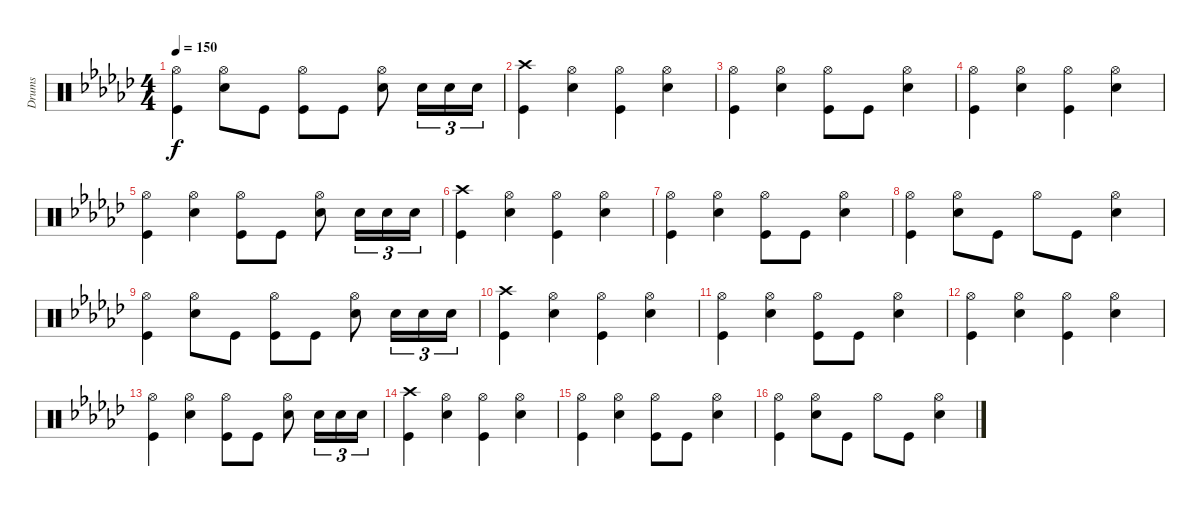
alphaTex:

\track ("Drums" "Drums") {instrument percussion}
\staff {score}
\articulation defaults
\ts (4 4)
\tempo 150
\clef neutral
\ks ebminor
("Hi-Hat (open)" "Kick (hit)").4{dy f} ("Hi-Hat (open)" "Snare (hit) 2").8 "Kick (hit)".8 ("Hi-Hat (open)" "Kick (hit)").8 "Kick (hit)".8 ("Hi-Hat (open)" "Snare (hit) 2").8 "Snare (hit) 2".16{tu (3 2)} "Snare (hit) 2".16{tu (3 2)} "Snare (hit) 2".16{tu (3 2)} |
("Crash high (hit)" "Kick (hit)").4 ("Hi-Hat (open)" "Snare (hit) 2").4 ("Hi-Hat (open)" "Kick (hit)").4 ("Hi-Hat (open)" "Snare (hit) 2").4 |
("Hi-Hat (open)" "Kick (hit)").4 ("Hi-Hat (open)" "Snare (hit) 2").4 ("Hi-Hat (open)" "Kick (hit)").8 "Kick (hit)".8 ("Hi-Hat (open)" "Snare (hit) 2").4 |
("Hi-Hat (open)" "Kick (hit)").4 ("Hi-Hat (open)" "Snare (hit) 2").4 ("Hi-Hat (open)" "Kick (hit)").4 ("Hi-Hat (open)" "Snare (hit) 2").4 |
("Hi-Hat (open)" "Kick (hit)").4 ("Hi-Hat (open)" "Snare (hit) 2").4 ("Hi-Hat (open)" "Kick (hit)").8 "Kick (hit)".8 ("Hi-Hat (open)" "Snare (hit) 2").8 "Snare (hit) 2".16{tu (3 2)} "Snare (hit) 2".16{tu (3 2)} "Snare (hit) 2".16{tu (3 2)} |
("Crash high (hit)" "Kick (hit)").4 ("Hi-Hat (open)" "Snare (hit) 2").4 ("Hi-Hat (open)" "Kick (hit)").4 ("Hi-Hat (open)" "Snare (hit) 2").4 |
("Hi-Hat (open)" "Kick (hit)").4 ("Hi-Hat (open)" "Snare (hit) 2").4 ("Hi-Hat (open)" "Kick (hit)").8 "Kick (hit)".8 ("Hi-Hat (open)" "Snare (hit) 2").4 |
("Hi-Hat (open)" "Kick (hit)").4 ("Hi-Hat (open)" "Snare (hit) 2").8 "Kick (hit)".8 "Hi-Hat (open)".8 "Kick (hit)".8 ("Hi-Hat (open)" "Snare (hit) 2").4 |
("Hi-Hat (open)" "Kick (hit)").4 ("Hi-Hat (open)" "Snare (hit) 2").8 "Kick (hit)".8 ("Hi-Hat (open)" "Kick (hit)").8 "Kick (hit)".8 ("Hi-Hat (open)" "Snare (hit) 2").8 "Snare (hit) 2".16{tu (3 2)} "Snare (hit) 2".16{tu (3 2)} "Snare (hit) 2".16{tu (3 2)} |
("Crash high (hit)" "Kick (hit)").4 ("Hi-Hat (open)" "Snare (hit) 2").4 ("Hi-Hat (open)" "Kick (hit)").4 ("Hi-Hat (open)" "Snare (hit) 2").4 |
("Hi-Hat (open)" "Kick (hit)").4 ("Hi-Hat (open)" "Snare (hit) 2").4 ("Hi-Hat (open)" "Kick (hit)").8 "Kick (hit)".8 ("Hi-Hat (open)" "Snare (hit) 2").4 |
("Hi-Hat (open)" "Kick (hit)").4 ("Hi-Hat (open)" "Snare (hit) 2").4 ("Hi-Hat (open)" "Kick (hit)").4 ("Hi-Hat (open)" "Snare (hit) 2").4 |
("Hi-Hat (open)" "Kick (hit)").4 ("Hi-Hat (open)" "Snare (hit) 2").4 ("Hi-Hat (open)" "Kick (hit)").8 "Kick (hit)".8 ("Hi-Hat (open)" "Snare (hit) 2").8 "Snare (hit) 2".16{tu (3 2)} "Snare (hit) 2".16{tu (3 2)} "Snare (hit) 2".16{tu (3 2)} |
("Crash high (hit)" "Kick (hit)").4 ("Hi-Hat (open)" "Snare (hit) 2").4 ("Hi-Hat (open)" "Kick (hit)").4 ("Hi-Hat (open)" "Snare (hit) 2").4 |
("Hi-Hat (open)" "Kick (hit)").4 ("Hi-Hat (open)" "Snare (hit) 2").4 ("Hi-Hat (open)" "Kick (hit)").8 "Kick (hit)".8 ("Hi-Hat (open)" "Snare (hit) 2").4 |
("Hi-Hat (open)" "Kick (hit)").4 ("Hi-Hat (open)" "Snare (hit) 2").8 "Kick (hit)".8 "Hi-Hat (open)".8 "Kick (hit)".8 ("Hi-Hat (open)" "Snare (hit) 2").4
